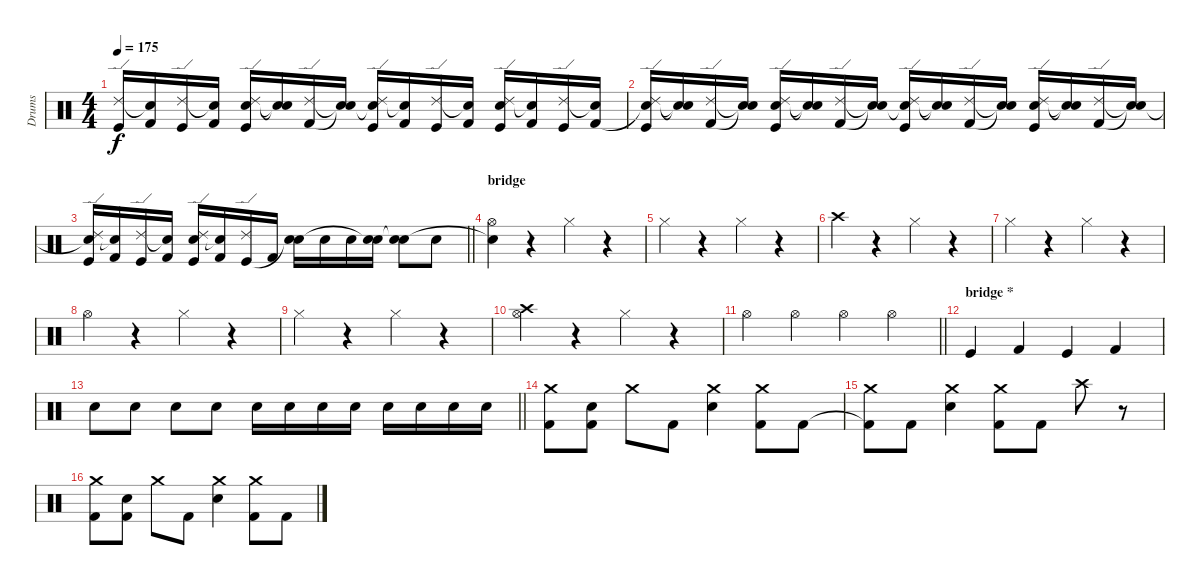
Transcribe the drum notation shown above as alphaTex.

\track ("Drums" "Drums") {instrument percussion}
\staff {score}
\articulation defaults
\ts (4 4)
\tempo 175
\clef neutral
\ks c
("Ride (edge) 2" "Kick (hit)").16{dy f} ("Snare (hit)"{t} "Kick (hit) 2").16 ("Ride (edge) 2" "Kick (hit)").16 ("Snare (hit)"{t} "Kick (hit) 2").16 ("Ride (edge) 2" "Snare (hit) 2" "Kick (hit)").16 ("Snare (hit)"{t} "Snare (hit)"{t}).16 ("Ride (edge) 2" "Kick (hit) 2").16 ("Snare (hit)"{t} "Snare (hit)"{t}).16 ("Ride (edge) 2" "Snare (hit)"{t} "Kick (hit)").16 ("Snare (hit)"{t} "Kick (hit) 2").16 ("Ride (edge) 2" "Kick (hit)").16 ("Snare (hit)"{t} "Kick (hit) 2").16 ("Ride (edge) 2" "Snare (hit) 2" "Kick (hit)").16 ("Snare (hit)"{t} "Kick (hit) 2").16 ("Ride (edge) 2" "Kick (hit)").16 ("Snare (hit)"{t} "Kick (hit) 2").16 |
("Ride (edge) 2" "Snare (hit)"{t} "Kick (hit)").16 ("Snare (hit)"{t} "Snare (hit)"{t}).16 ("Ride (edge) 2" "Kick (hit) 2").16 ("Snare (hit)"{t} "Snare (hit)"{t}).16 ("Ride (edge) 2" "Snare (hit) 2" "Kick (hit)").16 ("Snare (hit)"{t} "Snare (hit)"{t}).16 ("Ride (edge) 2" "Kick (hit) 2").16 ("Snare (hit)"{t} "Snare (hit)"{t}).16 ("Ride (edge) 2" "Snare (hit)"{t} "Kick (hit)").16 ("Snare (hit)"{t} "Snare (hit)"{t}).16 ("Ride (edge) 2" "Kick (hit) 2").16 ("Snare (hit)"{t} "Snare (hit)"{t}).16 ("Ride (edge) 2" "Snare (hit) 2" "Kick (hit)").16 ("Snare (hit)"{t} "Snare (hit)"{t}).16 ("Ride (edge) 2" "Kick (hit) 2").16 ("Snare (hit)"{t} "Snare (hit)"{t}).16 |
\barLineRight lightlight
("Ride (edge) 2" "Snare (hit)"{t} "Kick (hit)").16 ("Snare (hit)"{t} "Kick (hit) 2").16 ("Ride (edge) 2" "Kick (hit)").16 ("Snare (hit)"{t} "Kick (hit) 2").16 ("Ride (edge) 2" "Snare (hit) 2" "Kick (hit)").16 ("Snare (hit)"{t} "Kick (hit) 2").16 ("Ride (edge) 2" "Kick (hit)").16 "Kick (hit) 2".16 ("Snare (hit) 2" "Snare (hit)"{t}).16 "Snare (hit) 2".16 "Snare (hit) 2".16 ("Snare (hit) 2" "Snare (hit)"{t}).16 ("Snare (hit) 2" "Snare (hit)"{t}).8 "Snare (hit) 2".8 |
\section ("" "bridge")
("Hi-Hat (open)" "Snare (hit)"{t}).4 r.4 "Hi-Hat (closed)".4 r.4 |
"Hi-Hat (closed)".4 r.4 "Hi-Hat (closed)".4 r.4 |
"Crash high (hit)".4 r.4 "Hi-Hat (closed)".4 r.4 |
"Hi-Hat (closed)".4 r.4 "Hi-Hat (closed)".4 r.4 |
"Hi-Hat (open)".4 r.4 "Hi-Hat (closed)".4 r.4 |
"Hi-Hat (closed)".4 r.4 "Hi-Hat (closed)".4 r.4 |
("Hi-Hat (open)" "Crash high (hit)").4 r.4 "Hi-Hat (closed)".4 r.4 |
\barLineRight lightlight "Hi-Hat (open)".4 "Hi-Hat (open)".4 "Hi-Hat (open)".4 "Hi-Hat (open)".4
|
\section ("" "bridge *")
"Kick (hit)".4 "Kick (hit) 2".4 "Kick (hit)".4 "Kick (hit) 2".4 |
\barLineRight lightlight "Snare (hit) 2".8 "Snare (hit) 2".8 "Snare (hit) 2".8 "Snare (hit) 2".8 "Snare (hit) 2".16 "Snare (hit) 2".16 "Snare (hit) 2".16 "Snare (hit) 2".16 "Snare (hit) 2".16 "Snare (hit) 2".16 "Snare (hit) 2".16 "Snare (hit) 2".16
|
("Kick (hit) 2" "Crash medium (hit)").8 ("Kick (hit) 2" "Snare (hit) 2").8 "Crash medium (hit)".8 "Kick (hit) 2".8 ("Snare (hit) 2" "Crash medium (hit)").4 ("Kick (hit) 2" "Crash medium (hit)").8 "Kick (hit) 2".8 |
("Kick (hit) 2"{t} "Crash medium (hit)").8 "Kick (hit) 2".8 ("Snare (hit) 2" "Crash medium (hit)").4 ("Kick (hit) 2" "Crash medium (hit)").8 "Kick (hit) 2".8 "Crash high (hit)".8 r.8 |
("Kick (hit) 2" "Crash medium (hit)").8 ("Kick (hit) 2" "Snare (hit) 2").8 "Crash medium (hit)".8 "Kick (hit) 2".8 ("Snare (hit) 2" "Crash medium (hit)").4 ("Kick (hit) 2" "Crash medium (hit)").8 "Kick (hit) 2".8
